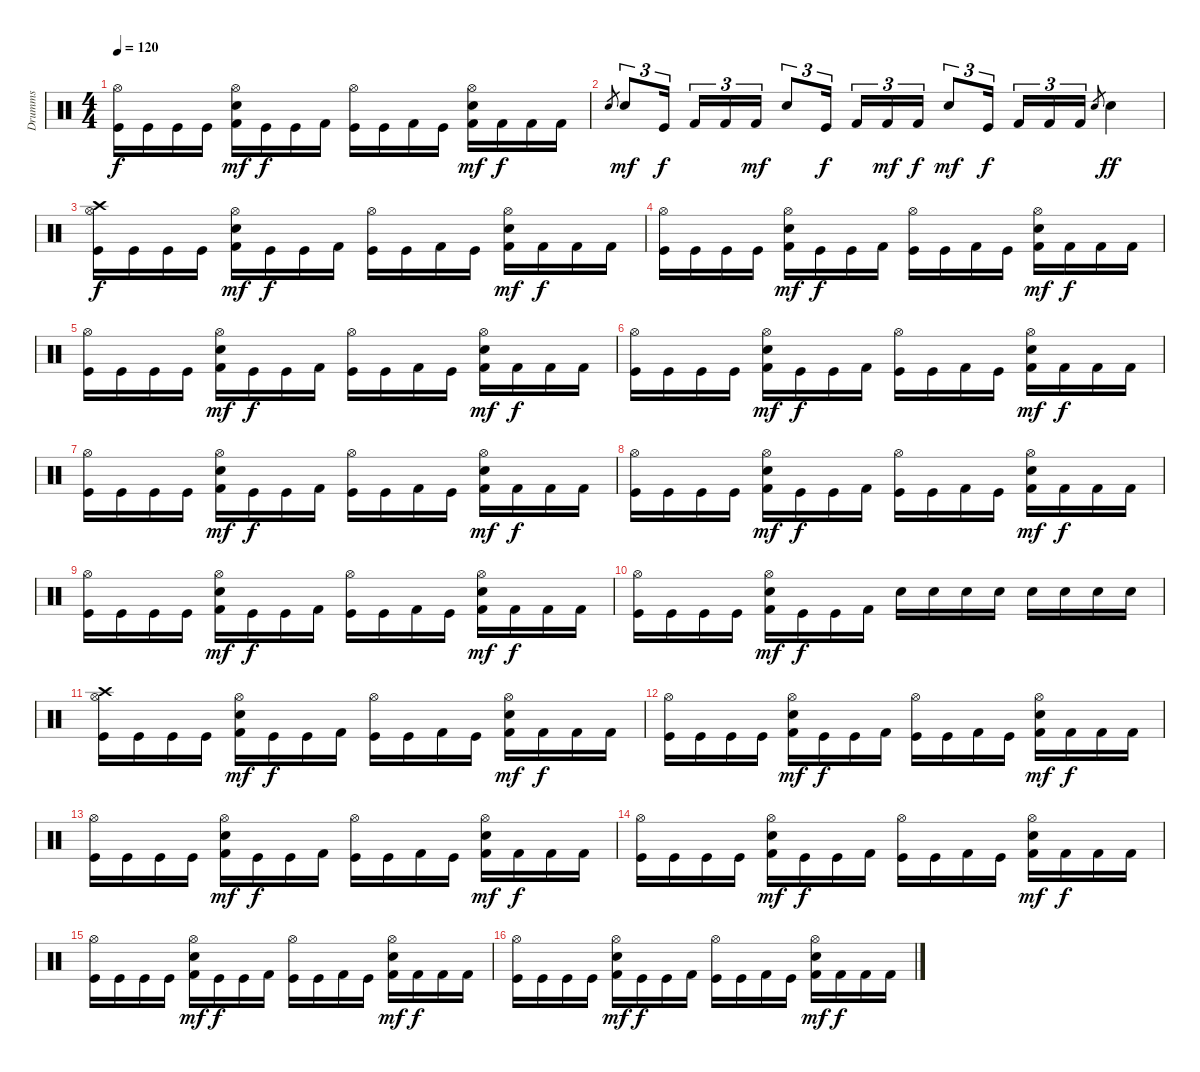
\track ("Drumms" "Drumms") {instrument percussion}
\staff {score}
\articulation defaults
\ts (4 4)
\tempo 120
\clef neutral
\ks c
("Hi-Hat (open)" "Kick (hit)").16{dy f} "Kick (hit)".16 "Kick (hit)".16 "Kick (hit)".16 ("Hi-Hat (open)" "Electric Snare (hit)" "Kick (hit) 2").16{dy mf} "Kick (hit)".16{dy f} "Kick (hit)".16 "Kick (hit) 2".16 ("Hi-Hat (open)" "Kick (hit)").16 "Kick (hit)".16 "Kick (hit) 2".16 "Kick (hit)".16 ("Hi-Hat (open)" "Electric Snare (hit)" "Kick (hit) 2").16{dy mf} "Kick (hit) 2".16{dy f} "Kick (hit) 2".16 "Kick (hit) 2".16 |
"Electric Snare (hit)".8{gr} "Electric Snare (hit)".8{tu (3 2) dy mf} "Kick (hit)".16{tu (3 2) dy f} "Kick (hit) 2".16{tu (3 2)} "Kick (hit) 2".16{tu (3 2)} "Kick (hit) 2".16{tu (3 2) dy mf} "Electric Snare (hit)".8{tu (3 2)} "Kick (hit)".16{tu (3 2) dy f} "Kick (hit) 2".16{tu (3 2)} "Kick (hit) 2".16{tu (3 2) dy mf} "Kick (hit) 2".16{tu (3 2) dy f} "Electric Snare (hit)".8{tu (3 2) dy mf} "Kick (hit)".16{tu (3 2) dy f} "Kick (hit) 2".16{tu (3 2)} "Kick (hit) 2".16{tu (3 2)} "Kick (hit) 2".16{tu (3 2)} "Electric Snare (hit)".8{gr} "Electric Snare (hit)".4{dy ff} |
("Hi-Hat (open)" "Crash high (hit)" "Kick (hit)").16{dy f} "Kick (hit)".16 "Kick (hit)".16 "Kick (hit)".16 ("Hi-Hat (open)" "Electric Snare (hit)" "Kick (hit) 2").16{dy mf} "Kick (hit)".16{dy f} "Kick (hit)".16 "Kick (hit) 2".16 ("Hi-Hat (open)" "Kick (hit)").16 "Kick (hit)".16 "Kick (hit) 2".16 "Kick (hit)".16 ("Hi-Hat (open)" "Electric Snare (hit)" "Kick (hit) 2").16{dy mf} "Kick (hit) 2".16{dy f} "Kick (hit) 2".16 "Kick (hit) 2".16 |
("Hi-Hat (open)" "Kick (hit)").16 "Kick (hit)".16 "Kick (hit)".16 "Kick (hit)".16 ("Hi-Hat (open)" "Electric Snare (hit)" "Kick (hit) 2").16{dy mf} "Kick (hit)".16{dy f} "Kick (hit)".16 "Kick (hit) 2".16 ("Hi-Hat (open)" "Kick (hit)").16 "Kick (hit)".16 "Kick (hit) 2".16 "Kick (hit)".16 ("Hi-Hat (open)" "Electric Snare (hit)" "Kick (hit) 2").16{dy mf} "Kick (hit) 2".16{dy f} "Kick (hit) 2".16 "Kick (hit) 2".16 |
("Hi-Hat (open)" "Kick (hit)").16 "Kick (hit)".16 "Kick (hit)".16 "Kick (hit)".16 ("Hi-Hat (open)" "Electric Snare (hit)" "Kick (hit) 2").16{dy mf} "Kick (hit)".16{dy f} "Kick (hit)".16 "Kick (hit) 2".16 ("Hi-Hat (open)" "Kick (hit)").16 "Kick (hit)".16 "Kick (hit) 2".16 "Kick (hit)".16 ("Hi-Hat (open)" "Electric Snare (hit)" "Kick (hit) 2").16{dy mf} "Kick (hit) 2".16{dy f} "Kick (hit) 2".16 "Kick (hit) 2".16 |
("Hi-Hat (open)" "Kick (hit)").16 "Kick (hit)".16 "Kick (hit)".16 "Kick (hit)".16 ("Hi-Hat (open)" "Electric Snare (hit)" "Kick (hit) 2").16{dy mf} "Kick (hit)".16{dy f} "Kick (hit)".16 "Kick (hit) 2".16 ("Hi-Hat (open)" "Kick (hit)").16 "Kick (hit)".16 "Kick (hit) 2".16 "Kick (hit)".16 ("Hi-Hat (open)" "Electric Snare (hit)" "Kick (hit) 2").16{dy mf} "Kick (hit) 2".16{dy f} "Kick (hit) 2".16 "Kick (hit) 2".16 |
("Hi-Hat (open)" "Kick (hit)").16 "Kick (hit)".16 "Kick (hit)".16 "Kick (hit)".16 ("Hi-Hat (open)" "Electric Snare (hit)" "Kick (hit) 2").16{dy mf} "Kick (hit)".16{dy f} "Kick (hit)".16 "Kick (hit) 2".16 ("Hi-Hat (open)" "Kick (hit)").16 "Kick (hit)".16 "Kick (hit) 2".16 "Kick (hit)".16 ("Hi-Hat (open)" "Electric Snare (hit)" "Kick (hit) 2").16{dy mf} "Kick (hit) 2".16{dy f} "Kick (hit) 2".16 "Kick (hit) 2".16 |
("Hi-Hat (open)" "Kick (hit)").16 "Kick (hit)".16 "Kick (hit)".16 "Kick (hit)".16 ("Hi-Hat (open)" "Electric Snare (hit)" "Kick (hit) 2").16{dy mf} "Kick (hit)".16{dy f} "Kick (hit)".16 "Kick (hit) 2".16 ("Hi-Hat (open)" "Kick (hit)").16 "Kick (hit)".16 "Kick (hit) 2".16 "Kick (hit)".16 ("Hi-Hat (open)" "Electric Snare (hit)" "Kick (hit) 2").16{dy mf} "Kick (hit) 2".16{dy f} "Kick (hit) 2".16 "Kick (hit) 2".16 |
("Hi-Hat (open)" "Kick (hit)").16 "Kick (hit)".16 "Kick (hit)".16 "Kick (hit)".16 ("Hi-Hat (open)" "Electric Snare (hit)" "Kick (hit) 2").16{dy mf} "Kick (hit)".16{dy f} "Kick (hit)".16 "Kick (hit) 2".16 ("Hi-Hat (open)" "Kick (hit)").16 "Kick (hit)".16 "Kick (hit) 2".16 "Kick (hit)".16 ("Hi-Hat (open)" "Electric Snare (hit)" "Kick (hit) 2").16{dy mf} "Kick (hit) 2".16{dy f} "Kick (hit) 2".16 "Kick (hit) 2".16 |
("Hi-Hat (open)" "Kick (hit)").16 "Kick (hit)".16 "Kick (hit)".16 "Kick (hit)".16 ("Hi-Hat (open)" "Electric Snare (hit)" "Kick (hit) 2").16{dy mf} "Kick (hit)".16{dy f} "Kick (hit)".16 "Kick (hit) 2".16 "Electric Snare (hit)".16 "Electric Snare (hit)".16 "Electric Snare (hit)".16 "Electric Snare (hit)".16 "Electric Snare (hit)".16 "Electric Snare (hit)".16 "Electric Snare (hit)".16 "Electric Snare (hit)".16 |
("Hi-Hat (open)" "Crash high (hit)" "Kick (hit)").16 "Kick (hit)".16 "Kick (hit)".16 "Kick (hit)".16 ("Hi-Hat (open)" "Electric Snare (hit)" "Kick (hit) 2").16{dy mf} "Kick (hit)".16{dy f} "Kick (hit)".16 "Kick (hit) 2".16 ("Hi-Hat (open)" "Kick (hit)").16 "Kick (hit)".16 "Kick (hit) 2".16 "Kick (hit)".16 ("Hi-Hat (open)" "Electric Snare (hit)" "Kick (hit) 2").16{dy mf} "Kick (hit) 2".16{dy f} "Kick (hit) 2".16 "Kick (hit) 2".16 |
("Hi-Hat (open)" "Kick (hit)").16 "Kick (hit)".16 "Kick (hit)".16 "Kick (hit)".16 ("Hi-Hat (open)" "Electric Snare (hit)" "Kick (hit) 2").16{dy mf} "Kick (hit)".16{dy f} "Kick (hit)".16 "Kick (hit) 2".16 ("Hi-Hat (open)" "Kick (hit)").16 "Kick (hit)".16 "Kick (hit) 2".16 "Kick (hit)".16 ("Hi-Hat (open)" "Electric Snare (hit)" "Kick (hit) 2").16{dy mf} "Kick (hit) 2".16{dy f} "Kick (hit) 2".16 "Kick (hit) 2".16 |
("Hi-Hat (open)" "Kick (hit)").16 "Kick (hit)".16 "Kick (hit)".16 "Kick (hit)".16 ("Hi-Hat (open)" "Electric Snare (hit)" "Kick (hit) 2").16{dy mf} "Kick (hit)".16{dy f} "Kick (hit)".16 "Kick (hit) 2".16 ("Hi-Hat (open)" "Kick (hit)").16 "Kick (hit)".16 "Kick (hit) 2".16 "Kick (hit)".16 ("Hi-Hat (open)" "Electric Snare (hit)" "Kick (hit) 2").16{dy mf} "Kick (hit) 2".16{dy f} "Kick (hit) 2".16 "Kick (hit) 2".16 |
("Hi-Hat (open)" "Kick (hit)").16 "Kick (hit)".16 "Kick (hit)".16 "Kick (hit)".16 ("Hi-Hat (open)" "Electric Snare (hit)" "Kick (hit) 2").16{dy mf} "Kick (hit)".16{dy f} "Kick (hit)".16 "Kick (hit) 2".16 ("Hi-Hat (open)" "Kick (hit)").16 "Kick (hit)".16 "Kick (hit) 2".16 "Kick (hit)".16 ("Hi-Hat (open)" "Electric Snare (hit)" "Kick (hit) 2").16{dy mf} "Kick (hit) 2".16{dy f} "Kick (hit) 2".16 "Kick (hit) 2".16 |
("Hi-Hat (open)" "Kick (hit)").16 "Kick (hit)".16 "Kick (hit)".16 "Kick (hit)".16 ("Hi-Hat (open)" "Electric Snare (hit)" "Kick (hit) 2").16{dy mf} "Kick (hit)".16{dy f} "Kick (hit)".16 "Kick (hit) 2".16 ("Hi-Hat (open)" "Kick (hit)").16 "Kick (hit)".16 "Kick (hit) 2".16 "Kick (hit)".16 ("Hi-Hat (open)" "Electric Snare (hit)" "Kick (hit) 2").16{dy mf} "Kick (hit) 2".16{dy f} "Kick (hit) 2".16 "Kick (hit) 2".16 |
("Hi-Hat (open)" "Kick (hit)").16 "Kick (hit)".16 "Kick (hit)".16 "Kick (hit)".16 ("Hi-Hat (open)" "Electric Snare (hit)" "Kick (hit) 2").16{dy mf} "Kick (hit)".16{dy f} "Kick (hit)".16 "Kick (hit) 2".16 ("Hi-Hat (open)" "Kick (hit)").16 "Kick (hit)".16 "Kick (hit) 2".16 "Kick (hit)".16 ("Hi-Hat (open)" "Electric Snare (hit)" "Kick (hit) 2").16{dy mf} "Kick (hit) 2".16{dy f} "Kick (hit) 2".16 "Kick (hit) 2".16
